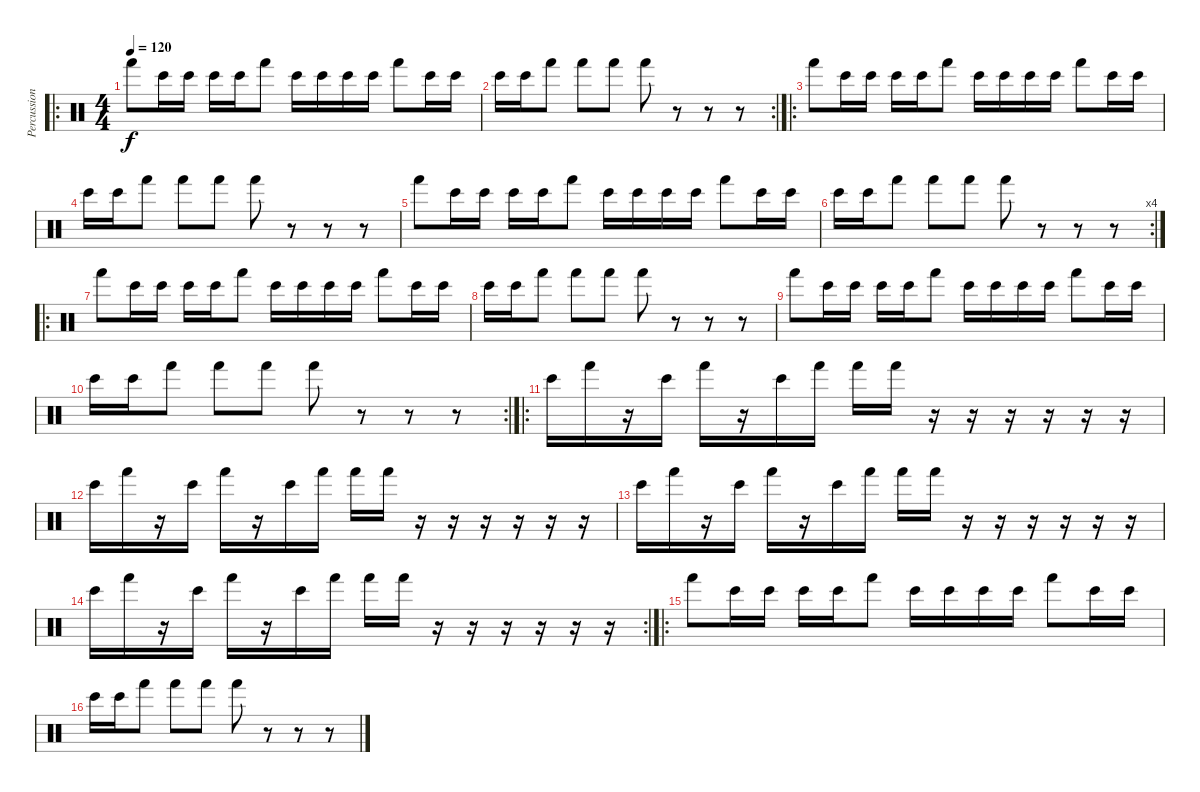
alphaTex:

\track ("Percussions" "Percussion") {instrument percussion}
\staff {score}
\articulation defaults
\ro
\ts (4 4)
\tempo 120
\clef neutral
\ks c "Hand (hit)".8{dy f} "Bongo High (hit)".16 "Bongo High (hit)".16 "Bongo High (hit)".16 "Bongo High (hit)".16 "Hand (hit)".8 "Bongo High (hit)".16 "Bongo High (hit)".16 "Bongo High (hit)".16 "Bongo High (hit)".16 "Hand (hit)".8 "Bongo High (hit)".16 "Bongo High (hit)".16
|
\rc 2 "Bongo High (hit)".16 "Bongo High (hit)".16 "Hand (hit)".8 "Hand (hit)".8 "Hand (hit)".8 "Hand (hit)".8
r.8 r.8 r.8 |
\ro "Hand (hit)".8 "Bongo High (hit)".16 "Bongo High (hit)".16 "Bongo High (hit)".16 "Bongo High (hit)".16 "Hand (hit)".8 "Bongo High (hit)".16 "Bongo High (hit)".16 "Bongo High (hit)".16 "Bongo High (hit)".16 "Hand (hit)".8 "Bongo High (hit)".16 "Bongo High (hit)".16
|
"Bongo High (hit)".16 "Bongo High (hit)".16 "Hand (hit)".8 "Hand (hit)".8 "Hand (hit)".8 "Hand (hit)".8 r.8 r.8 r.8 |
"Hand (hit)".8 "Bongo High (hit)".16 "Bongo High (hit)".16 "Bongo High (hit)".16 "Bongo High (hit)".16 "Hand (hit)".8 "Bongo High (hit)".16 "Bongo High (hit)".16 "Bongo High (hit)".16 "Bongo High (hit)".16 "Hand (hit)".8 "Bongo High (hit)".16 "Bongo High (hit)".16 |
\rc 4 "Bongo High (hit)".16 "Bongo High (hit)".16 "Hand (hit)".8 "Hand (hit)".8 "Hand (hit)".8 "Hand (hit)".8
r.8 r.8 r.8 |
\ro "Hand (hit)".8 "Bongo High (hit)".16 "Bongo High (hit)".16 "Bongo High (hit)".16 "Bongo High (hit)".16 "Hand (hit)".8 "Bongo High (hit)".16 "Bongo High (hit)".16 "Bongo High (hit)".16 "Bongo High (hit)".16 "Hand (hit)".8 "Bongo High (hit)".16 "Bongo High (hit)".16
|
"Bongo High (hit)".16 "Bongo High (hit)".16 "Hand (hit)".8 "Hand (hit)".8 "Hand (hit)".8 "Hand (hit)".8 r.8 r.8 r.8 |
"Hand (hit)".8 "Bongo High (hit)".16 "Bongo High (hit)".16 "Bongo High (hit)".16 "Bongo High (hit)".16 "Hand (hit)".8 "Bongo High (hit)".16 "Bongo High (hit)".16 "Bongo High (hit)".16 "Bongo High (hit)".16 "Hand (hit)".8 "Bongo High (hit)".16 "Bongo High (hit)".16 |
\rc 2 "Bongo High (hit)".16 "Bongo High (hit)".16 "Hand (hit)".8 "Hand (hit)".8 "Hand (hit)".8 "Hand (hit)".8
r.8 r.8 r.8 |
\ro "Bongo High (hit)".16 "Hand (hit)".16
r.16 "Bongo High (hit)".16 "Hand (hit)".16 r.16 "Bongo High (hit)".16 "Hand (hit)".16 "Hand (hit)".16 "Hand (hit)".16 r.16 r.16 r.16 r.16 r.16 r.16 |
"Bongo High (hit)".16 "Hand (hit)".16 r.16 "Bongo High (hit)".16 "Hand (hit)".16 r.16 "Bongo High (hit)".16 "Hand (hit)".16 "Hand (hit)".16 "Hand (hit)".16 r.16 r.16 r.16 r.16 r.16 r.16 |
"Bongo High (hit)".16 "Hand (hit)".16 r.16 "Bongo High (hit)".16 "Hand (hit)".16 r.16 "Bongo High (hit)".16 "Hand (hit)".16 "Hand (hit)".16 "Hand (hit)".16 r.16 r.16 r.16 r.16 r.16 r.16 |
\rc 2 "Bongo High (hit)".16 "Hand (hit)".16
r.16 "Bongo High (hit)".16 "Hand (hit)".16 r.16 "Bongo High (hit)".16 "Hand (hit)".16 "Hand (hit)".16 "Hand (hit)".16 r.16 r.16 r.16 r.16 r.16 r.16 |
\ro "Hand (hit)".8 "Bongo High (hit)".16 "Bongo High (hit)".16 "Bongo High (hit)".16 "Bongo High (hit)".16 "Hand (hit)".8 "Bongo High (hit)".16 "Bongo High (hit)".16 "Bongo High (hit)".16 "Bongo High (hit)".16 "Hand (hit)".8 "Bongo High (hit)".16 "Bongo High (hit)".16
|
"Bongo High (hit)".16 "Bongo High (hit)".16 "Hand (hit)".8 "Hand (hit)".8 "Hand (hit)".8 "Hand (hit)".8 r.8 r.8 r.8
